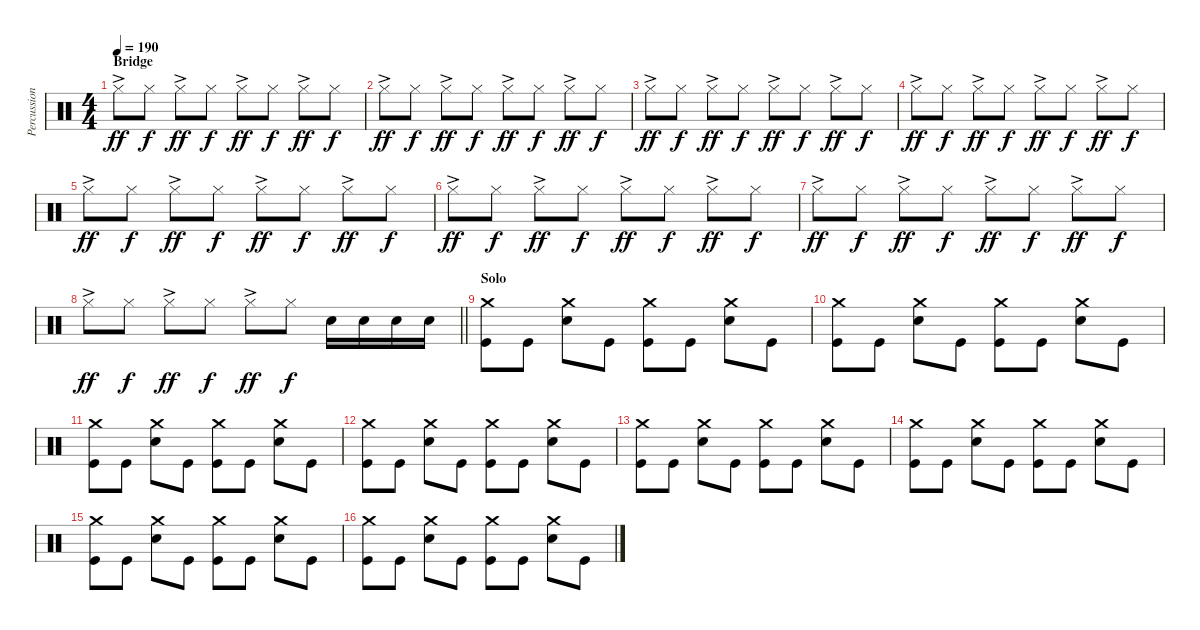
\track ("Percussion" "Percussion") {instrument percussion}
\staff {score}
\articulation defaults
\ts (4 4)
\section ("" "Bridge")
\tempo 190
\clef neutral
\ks c "Hi-Hat (closed)"{ac}.8{dy ff} "Hi-Hat (closed)".8{dy f} "Hi-Hat (closed)"{ac}.8{dy ff} "Hi-Hat (closed)".8{dy f} "Hi-Hat (closed)"{ac}.8{dy ff} "Hi-Hat (closed)".8{dy f} "Hi-Hat (closed)"{ac}.8{dy ff} "Hi-Hat (closed)".8{dy f}
|
"Hi-Hat (closed)"{ac}.8{dy ff} "Hi-Hat (closed)".8{dy f} "Hi-Hat (closed)"{ac}.8{dy ff} "Hi-Hat (closed)".8{dy f} "Hi-Hat (closed)"{ac}.8{dy ff} "Hi-Hat (closed)".8{dy f} "Hi-Hat (closed)"{ac}.8{dy ff} "Hi-Hat (closed)".8{dy f} |
"Hi-Hat (closed)"{ac}.8{dy ff} "Hi-Hat (closed)".8{dy f} "Hi-Hat (closed)"{ac}.8{dy ff} "Hi-Hat (closed)".8{dy f} "Hi-Hat (closed)"{ac}.8{dy ff} "Hi-Hat (closed)".8{dy f} "Hi-Hat (closed)"{ac}.8{dy ff} "Hi-Hat (closed)".8{dy f} |
"Hi-Hat (closed)"{ac}.8{dy ff} "Hi-Hat (closed)".8{dy f} "Hi-Hat (closed)"{ac}.8{dy ff} "Hi-Hat (closed)".8{dy f} "Hi-Hat (closed)"{ac}.8{dy ff} "Hi-Hat (closed)".8{dy f} "Hi-Hat (closed)"{ac}.8{dy ff} "Hi-Hat (closed)".8{dy f} |
"Hi-Hat (closed)"{ac}.8{dy ff} "Hi-Hat (closed)".8{dy f} "Hi-Hat (closed)"{ac}.8{dy ff} "Hi-Hat (closed)".8{dy f} "Hi-Hat (closed)"{ac}.8{dy ff} "Hi-Hat (closed)".8{dy f} "Hi-Hat (closed)"{ac}.8{dy ff} "Hi-Hat (closed)".8{dy f} |
"Hi-Hat (closed)"{ac}.8{dy ff} "Hi-Hat (closed)".8{dy f} "Hi-Hat (closed)"{ac}.8{dy ff} "Hi-Hat (closed)".8{dy f} "Hi-Hat (closed)"{ac}.8{dy ff} "Hi-Hat (closed)".8{dy f} "Hi-Hat (closed)"{ac}.8{dy ff} "Hi-Hat (closed)".8{dy f} |
"Hi-Hat (closed)"{ac}.8{dy ff} "Hi-Hat (closed)".8{dy f} "Hi-Hat (closed)"{ac}.8{dy ff} "Hi-Hat (closed)".8{dy f} "Hi-Hat (closed)"{ac}.8{dy ff} "Hi-Hat (closed)".8{dy f} "Hi-Hat (closed)"{ac}.8{dy ff} "Hi-Hat (closed)".8{dy f} |
\barLineRight lightlight "Hi-Hat (closed)"{ac}.8{dy ff} "Hi-Hat (closed)".8{dy f} "Hi-Hat (closed)"{ac}.8{dy ff} "Hi-Hat (closed)".8{dy f} "Hi-Hat (closed)"{ac}.8{dy ff} "Hi-Hat (closed)".8{dy f} "Snare (hit) 2".16 "Snare (hit) 2".16 "Snare (hit) 2".16 "Snare (hit) 2".16
|
\section ("" "Solo")
("Crash medium (hit)" "Kick (hit)").8 "Kick (hit)".8 ("Crash medium (hit)" "Snare (hit) 2").8 "Kick (hit)".8 ("Crash medium (hit)" "Kick (hit)").8 "Kick (hit)".8 ("Crash medium (hit)" "Snare (hit) 2").8 "Kick (hit)".8 |
("Crash medium (hit)" "Kick (hit)").8 "Kick (hit)".8 ("Crash medium (hit)" "Snare (hit) 2").8 "Kick (hit)".8 ("Crash medium (hit)" "Kick (hit)").8 "Kick (hit)".8 ("Crash medium (hit)" "Snare (hit) 2").8 "Kick (hit)".8 |
("Crash medium (hit)" "Kick (hit)").8 "Kick (hit)".8 ("Crash medium (hit)" "Snare (hit) 2").8 "Kick (hit)".8 ("Crash medium (hit)" "Kick (hit)").8 "Kick (hit)".8 ("Crash medium (hit)" "Snare (hit) 2").8 "Kick (hit)".8 |
("Crash medium (hit)" "Kick (hit)").8 "Kick (hit)".8 ("Crash medium (hit)" "Snare (hit) 2").8 "Kick (hit)".8 ("Crash medium (hit)" "Kick (hit)").8 "Kick (hit)".8 ("Crash medium (hit)" "Snare (hit) 2").8 "Kick (hit)".8 |
("Crash medium (hit)" "Kick (hit)").8 "Kick (hit)".8 ("Crash medium (hit)" "Snare (hit) 2").8 "Kick (hit)".8 ("Crash medium (hit)" "Kick (hit)").8 "Kick (hit)".8 ("Crash medium (hit)" "Snare (hit) 2").8 "Kick (hit)".8 |
("Crash medium (hit)" "Kick (hit)").8 "Kick (hit)".8 ("Crash medium (hit)" "Snare (hit) 2").8 "Kick (hit)".8 ("Crash medium (hit)" "Kick (hit)").8 "Kick (hit)".8 ("Crash medium (hit)" "Snare (hit) 2").8 "Kick (hit)".8 |
("Crash medium (hit)" "Kick (hit)").8 "Kick (hit)".8 ("Crash medium (hit)" "Snare (hit) 2").8 "Kick (hit)".8 ("Crash medium (hit)" "Kick (hit)").8 "Kick (hit)".8 ("Crash medium (hit)" "Snare (hit) 2").8 "Kick (hit)".8 |
("Crash medium (hit)" "Kick (hit)").8 "Kick (hit)".8 ("Crash medium (hit)" "Snare (hit) 2").8 "Kick (hit)".8 ("Crash medium (hit)" "Kick (hit)").8 "Kick (hit)".8 ("Crash medium (hit)" "Snare (hit) 2").8 "Kick (hit)".8
